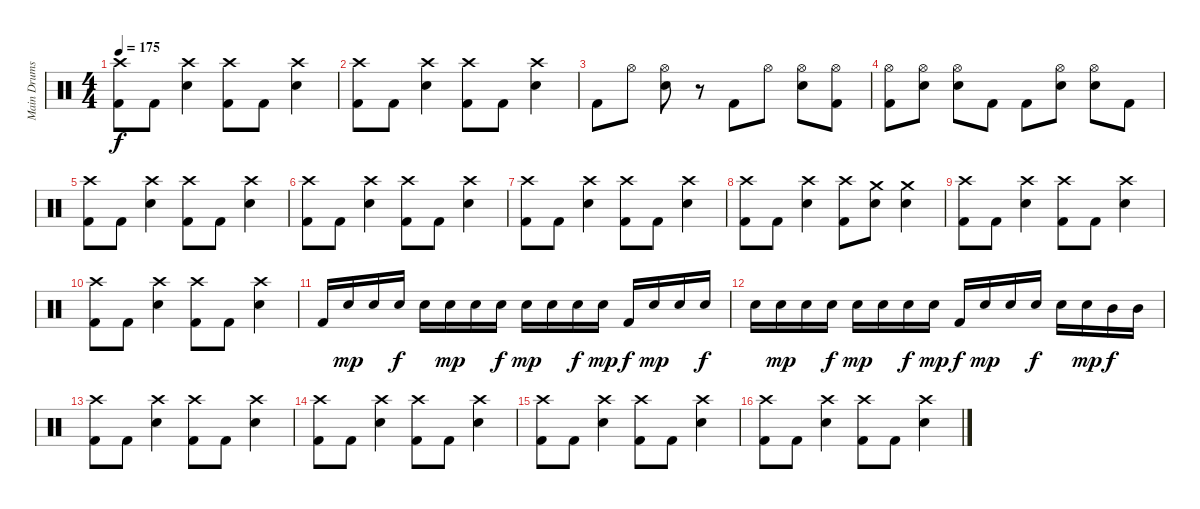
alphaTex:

\track ("Main Drums" "Main Drums") {instrument percussion}
\staff {score}
\articulation defaults
\ts (4 4)
\tempo 175
\clef neutral
\ks c
("Crash high (hit)" "Kick (hit) 2").8{dy f} "Kick (hit) 2".8 ("Crash high (hit)" "Electric Snare (hit)").4 ("Crash high (hit)" "Kick (hit) 2").8 "Kick (hit) 2".8 ("Crash high (hit)" "Electric Snare (hit)").4 |
("Crash high (hit)" "Kick (hit) 2").8 "Kick (hit) 2".8 ("Crash high (hit)" "Electric Snare (hit)").4 ("Crash high (hit)" "Kick (hit) 2").8 "Kick (hit) 2".8 ("Crash high (hit)" "Electric Snare (hit)").4 |
"Kick (hit) 2".8 "Hi-Hat (open)".8 ("Hi-Hat (open)" "Electric Snare (hit)").8 r.8 "Kick (hit) 2".8 "Hi-Hat (open)".8 ("Hi-Hat (open)" "Electric Snare (hit)").8 ("Hi-Hat (open)" "Kick (hit) 2").8 |
("Hi-Hat (open)" "Kick (hit) 2").8 ("Hi-Hat (open)" "Electric Snare (hit)").8 ("Hi-Hat (open)" "Electric Snare (hit)").8 "Kick (hit) 2".8 "Kick (hit) 2".8 ("Hi-Hat (open)" "Electric Snare (hit)").8 ("Hi-Hat (open)" "Electric Snare (hit)").8 "Kick (hit) 2".8 |
("Crash high (hit)" "Kick (hit) 2").8 "Kick (hit) 2".8 ("Crash high (hit)" "Electric Snare (hit)").4 ("Crash high (hit)" "Kick (hit) 2").8 "Kick (hit) 2".8 ("Crash high (hit)" "Electric Snare (hit)").4 |
("Crash high (hit)" "Kick (hit) 2").8 "Kick (hit) 2".8 ("Crash high (hit)" "Electric Snare (hit)").4 ("Crash high (hit)" "Kick (hit) 2").8 "Kick (hit) 2".8 ("Crash high (hit)" "Electric Snare (hit)").4 |
("Crash high (hit)" "Kick (hit) 2").8 "Kick (hit) 2".8 ("Crash high (hit)" "Electric Snare (hit)").4 ("Crash high (hit)" "Kick (hit) 2").8 "Kick (hit) 2".8 ("Crash high (hit)" "Electric Snare (hit)").4 |
("Crash high (hit)" "Kick (hit) 2").8 "Kick (hit) 2".8 ("Crash high (hit)" "Electric Snare (hit)").4 ("Crash high (hit)" "Kick (hit) 2").8 ("Crash medium (hit)" "Electric Snare (hit)").8 ("Crash medium (hit)" "Electric Snare (hit)").4 |
("Crash high (hit)" "Kick (hit) 2").8 "Kick (hit) 2".8 ("Crash high (hit)" "Electric Snare (hit)").4 ("Crash high (hit)" "Kick (hit) 2").8 "Kick (hit) 2".8 ("Crash high (hit)" "Electric Snare (hit)").4 |
("Crash high (hit)" "Kick (hit) 2").8 "Kick (hit) 2".8 ("Crash high (hit)" "Electric Snare (hit)").4 ("Crash high (hit)" "Kick (hit) 2").8 "Kick (hit) 2".8 ("Crash high (hit)" "Electric Snare (hit)").4 |
"Kick (hit) 2".16 "Electric Snare (hit)".16{dy mp} "Electric Snare (hit)".16 "Electric Snare (hit)".16{dy f} "Electric Snare (hit)".16 "Electric Snare (hit)".16{dy mp} "Electric Snare (hit)".16 "Electric Snare (hit)".16{dy f} "Electric Snare (hit)".16{dy mp} "Electric Snare (hit)".16 "Electric Snare (hit)".16{dy f} "Electric Snare (hit)".16{dy mp} "Kick (hit) 2".16{dy f} "Electric Snare (hit)".16{dy mp} "Electric Snare (hit)".16 "Electric Snare (hit)".16{dy f} |
"Electric Snare (hit)".16 "Electric Snare (hit)".16{dy mp} "Electric Snare (hit)".16 "Electric Snare (hit)".16{dy f} "Electric Snare (hit)".16{dy mp} "Electric Snare (hit)".16 "Electric Snare (hit)".16{dy f} "Electric Snare (hit)".16{dy mp} "Kick (hit) 2".16{dy f} "Electric Snare (hit)".16{dy mp} "Electric Snare (hit)".16 "Electric Snare (hit)".16{dy f} "Electric Snare (hit)".16 "Electric Snare (hit)".16{dy mp} "Mid Tom (hit)".16{dy f} "Mid Tom (hit)".16 |
("Crash high (hit)" "Kick (hit) 2").8 "Kick (hit) 2".8 ("Crash high (hit)" "Electric Snare (hit)").4 ("Crash high (hit)" "Kick (hit) 2").8 "Kick (hit) 2".8 ("Crash high (hit)" "Electric Snare (hit)").4 |
("Crash high (hit)" "Kick (hit) 2").8 "Kick (hit) 2".8 ("Crash high (hit)" "Electric Snare (hit)").4 ("Crash high (hit)" "Kick (hit) 2").8 "Kick (hit) 2".8 ("Crash high (hit)" "Electric Snare (hit)").4 |
("Crash high (hit)" "Kick (hit) 2").8 "Kick (hit) 2".8 ("Crash high (hit)" "Electric Snare (hit)").4 ("Crash high (hit)" "Kick (hit) 2").8 "Kick (hit) 2".8 ("Crash high (hit)" "Electric Snare (hit)").4 |
("Crash high (hit)" "Kick (hit) 2").8 "Kick (hit) 2".8 ("Crash high (hit)" "Electric Snare (hit)").4 ("Crash high (hit)" "Kick (hit) 2").8 "Kick (hit) 2".8 ("Crash high (hit)" "Electric Snare (hit)").4
